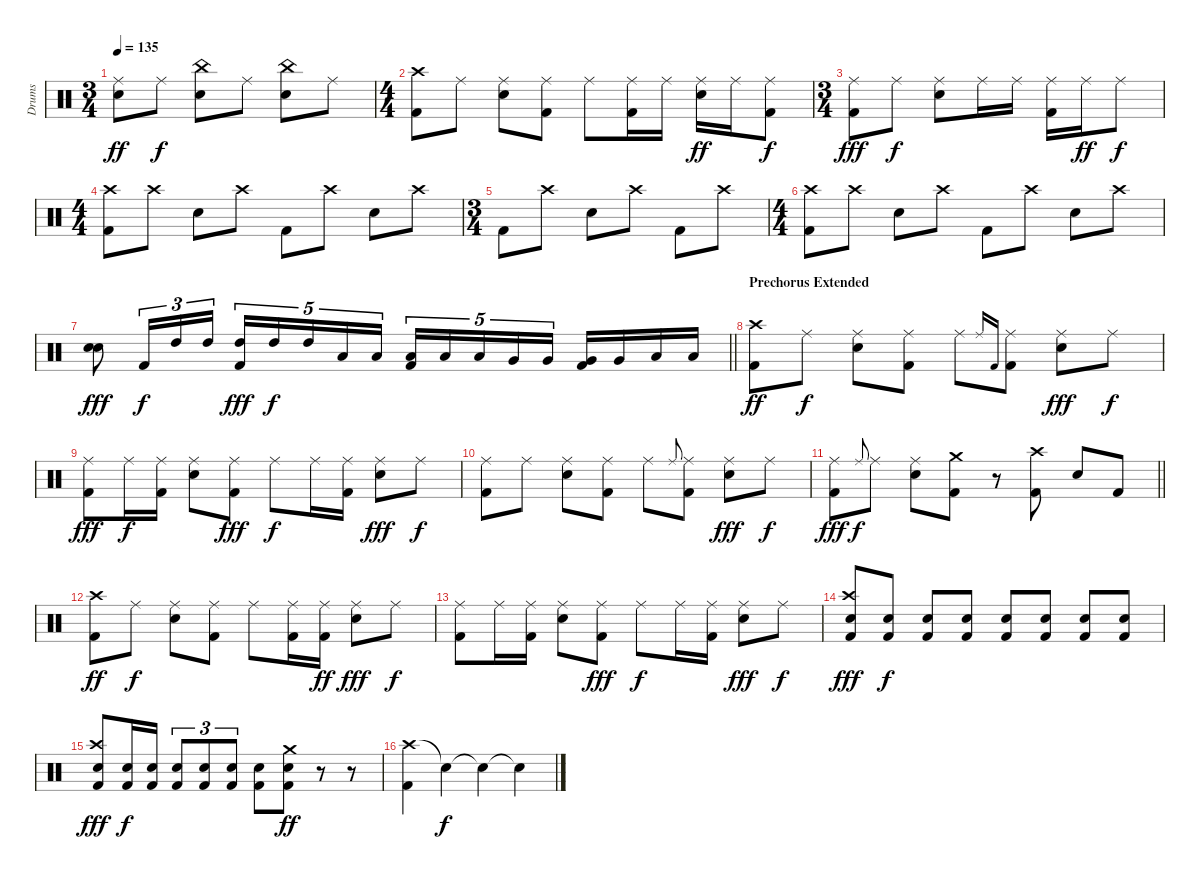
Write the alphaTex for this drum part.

\track ("Drums" "Drums") {instrument percussion}
\staff {score}
\articulation defaults
\ts (3 4)
\tempo 135
\clef neutral
\ks c
("Ride (middle)" "Snare (hit) 2").8{dy ff} "Ride (middle)".8{dy f} ("China (hit)" "Snare (hit) 2").8 "Ride (middle)".8 ("China (hit)" "Snare (hit) 2").8 "Ride (middle)".8 |
\ts (4 4)
("Crash high (hit)" "Kick (hit) 2").8 "Ride (middle)".8 ("Ride (middle)" "Snare (hit) 2").8 ("Ride (middle)" "Kick (hit) 2").8 "Ride (middle)".8 ("Ride (middle)" "Kick (hit) 2").16 "Ride (middle)".16 ("Ride (middle)" "Snare (hit) 2").16{dy ff} "Ride (middle)".16 ("Ride (middle)" "Kick (hit) 2").8{dy f} |
\ts (3 4)
("Ride (middle)" "Kick (hit) 2").8{dy fff} "Ride (middle)".8{dy f} ("Ride (middle)" "Snare (hit) 2").8 "Ride (middle)".16 "Ride (middle)".16 ("Ride (middle)" "Kick (hit) 2").16 "Ride (middle)".16{dy ff} "Ride (middle)".8{dy f} |
\ts (4 4)
("Crash high (hit)" "Kick (hit) 2").8 "Crash high (hit)".8 "Snare (hit) 2".8 "Crash high (hit)".8 "Kick (hit) 2".8 "Crash high (hit)".8 "Snare (hit) 2".8 "Crash high (hit)".8 |
\ts (3 4)
"Kick (hit) 2".8 "Crash high (hit)".8 "Snare (hit) 2".8 "Crash high (hit)".8 "Kick (hit) 2".8 "Crash high (hit)".8 |
\ts (4 4)
("Crash high (hit)" "Kick (hit) 2").8 "Crash high (hit)".8 "Snare (hit) 2".8 "Crash high (hit)".8 "Kick (hit) 2".8 "Crash high (hit)".8 "Snare (hit) 2".8 "Crash high (hit)".8 |
\barLineRight lightlight
("Snare (hit) 2" "Snare (hit) 2").8{dy fff} "Kick (hit) 2".16{tu (3 2) dy f} "High Tom (hit)".16{tu (3 2)} "High Tom (hit)".16{tu (3 2)} ("High Tom (hit)" "Kick (hit) 2").16{tu (5 4) dy fff} "High Tom (hit)".16{tu (5 4) dy f} "High Tom (hit)".16{tu (5 4)} "Low Tom (hit)".16{tu (5 4)} "Low Tom (hit)".16{tu (5 4)} ("Low Tom (hit)" "Kick (hit) 2").16{tu (5 4)} "Low Tom (hit)".16{tu (5 4)} "Low Tom (hit)".16{tu (5 4)} "Very Low Tom (hit)".16{tu (5 4)} "Very Low Tom (hit)".16{tu (5 4)} ("Very Low Tom (hit)" "Kick (hit) 2").16 "Very Low Tom (hit)".16 "Low Floor Tom (hit)".16 "Low Floor Tom (hit)".16 |
\section ("" "Prechorus Extended")
("Crash high (hit)" "Kick (hit) 2").8{dy ff} "Ride (middle)".8{dy f} ("Ride (middle)" "Snare (hit) 2").8 ("Ride (middle)" "Kick (hit) 2").8 "Ride (middle)".8 "Ride (middle)".16{gr onbeat} "Kick (hit) 2".16{gr onbeat} ("Ride (middle)" "Kick (hit) 2").8 ("Ride (middle)" "Snare (hit) 2").8{dy fff} "Ride (middle)".8{dy f} |
("Ride (middle)" "Kick (hit) 2").8{dy fff} "Ride (middle)".16{dy f} ("Ride (middle)" "Kick (hit) 2").16 ("Ride (middle)" "Snare (hit) 2").8 ("Ride (middle)" "Kick (hit) 2").8{dy fff} "Ride (middle)".8{dy f} "Ride (middle)".16 ("Ride (middle)" "Kick (hit) 2").16 ("Ride (middle)" "Snare (hit) 2").8{dy fff} "Ride (middle)".8{dy f} |
("Ride (middle)" "Kick (hit) 2").8 "Ride (middle)".8 ("Ride (middle)" "Snare (hit) 2").8 ("Ride (middle)" "Kick (hit) 2").8 "Ride (middle)".8 "Ride (middle)".8{gr onbeat} ("Ride (middle)" "Kick (hit) 2").8 ("Ride (middle)" "Snare (hit) 2").8{dy fff} "Ride (middle)".8{dy f} |
\barLineRight lightlight
("Ride (middle)" "Kick (hit) 2").8{dy fff} "Ride (middle)".8{gr onbeat dy f} "Ride (middle)".8 ("Ride (middle)" "Snare (hit) 2").8 ("Crash medium (hit)" "Kick (hit) 2").8 r.8 ("Crash high (hit)" "Kick (hit) 2").8 "Snare (hit) 2".8 "Kick (hit) 2".8 |
("Crash high (hit)" "Kick (hit) 2").8{dy ff volume 16 balance 8} "Ride (middle)".8{dy f} ("Ride (middle)" "Snare (hit) 2").8 ("Ride (middle)" "Kick (hit) 2").8 "Ride (middle)".8 ("Ride (middle)" "Kick (hit) 2").16 ("Ride (middle)" "Kick (hit) 2").16{dy ff} ("Ride (middle)" "Snare (hit) 2").8{dy fff} "Ride (middle)".8{dy f} |
("Ride (middle)" "Kick (hit) 2").8 "Ride (middle)".16 ("Ride (middle)" "Kick (hit) 2").16 ("Ride (middle)" "Snare (hit) 2").8 ("Ride (middle)" "Kick (hit) 2").8{dy fff} "Ride (middle)".8{dy f} "Ride (middle)".16 ("Ride (middle)" "Kick (hit) 2").16 ("Ride (middle)" "Snare (hit) 2").8{dy fff} "Ride (middle)".8{dy f} |
("Crash high (hit)" "Snare (hit) 2" "Kick (hit) 2").8{dy fff} ("Snare (hit) 2" "Kick (hit) 2").8{dy f} ("Snare (hit) 2" "Kick (hit) 2").8 ("Snare (hit) 2" "Kick (hit) 2").8 ("Snare (hit) 2" "Kick (hit) 2").8 ("Snare (hit) 2" "Kick (hit) 2").8 ("Snare (hit) 2" "Kick (hit) 2").8 ("Snare (hit) 2" "Kick (hit) 2").8 |
("Crash high (hit)" "Snare (hit) 2" "Kick (hit) 2").8{dy fff} ("Snare (hit) 2" "Kick (hit) 2").16{dy f} ("Snare (hit) 2" "Kick (hit) 2").16 ("Snare (hit) 2" "Kick (hit) 2").8{tu (3 2)} ("Snare (hit) 2" "Kick (hit) 2").8{tu (3 2)} ("Snare (hit) 2" "Kick (hit) 2").8{tu (3 2)} ("Snare (hit) 2" "Kick (hit) 2").8 ("Crash medium (hit)" "Snare (hit) 2" "Kick (hit) 2").8{dy ff} r.8 r.8 |
("Crash high (hit)" "Kick (hit) 2").4 "Snare (hit)"{t}.4{dy f} "Snare (hit)"{t}.4 "Snare (hit)"{t}.4
